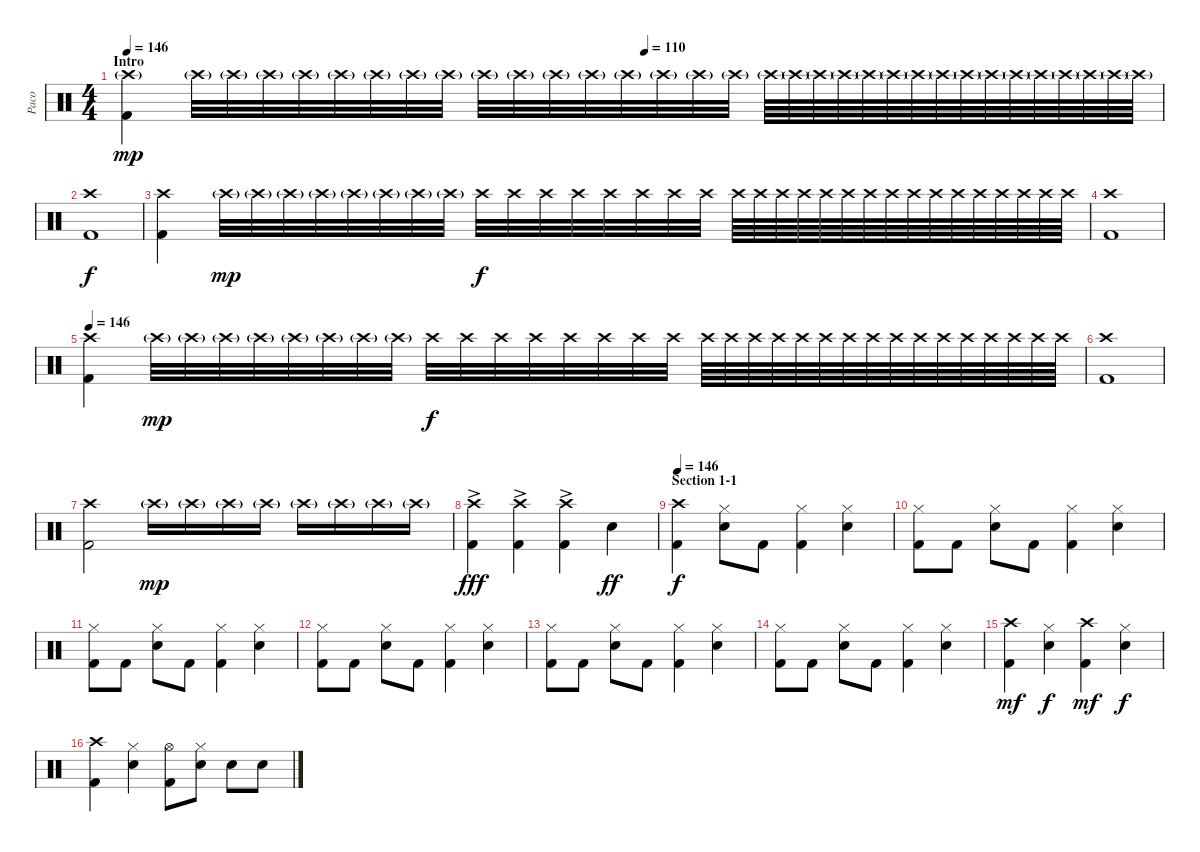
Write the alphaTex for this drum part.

\track ("Paco" "Paco") {instrument percussion}
\staff {score}
\articulation defaults
\ts (4 4)
\section ("" "Intro")
\tempo 146
\tempo 70
\tempo (110 0.5)
\tempo 146
\clef neutral
\ks c
("Crash high (hit)"{g} "Kick (hit) 2").4{dy mp} "Crash high (hit)"{g}.32 "Crash high (hit)"{g}.32 "Crash high (hit)"{g}.32 "Crash high (hit)"{g}.32 "Crash high (hit)"{g}.32 "Crash high (hit)"{g}.32 "Crash high (hit)"{g}.32 "Crash high (hit)"{g}.32 "Crash high (hit)"{g}.32 "Crash high (hit)"{g}.32 "Crash high (hit)"{g}.32 "Crash high (hit)"{g}.32 "Crash high (hit)"{g}.32 "Crash high (hit)"{g}.32 "Crash high (hit)"{g}.32 "Crash high (hit)"{g}.32 "Crash high (hit)"{g}.64 "Crash high (hit)"{g}.64 "Crash high (hit)"{g}.64 "Crash high (hit)"{g}.64 "Crash high (hit)"{g}.64 "Crash high (hit)"{g}.64 "Crash high (hit)"{g}.64 "Crash high (hit)"{g}.64 "Crash high (hit)"{g}.64 "Crash high (hit)"{g}.64 "Crash high (hit)"{g}.64 "Crash high (hit)"{g}.64 "Crash high (hit)"{g}.64 "Crash high (hit)"{g}.64 "Crash high (hit)"{g}.64 "Crash high (hit)"{g}.64 |
("Crash high (hit)" "Kick (hit) 2").1{dy f} |
("Crash high (hit)" "Kick (hit) 2").4 "Crash high (hit)"{g}.32{dy mp} "Crash high (hit)"{g}.32 "Crash high (hit)"{g}.32 "Crash high (hit)"{g}.32 "Crash high (hit)"{g}.32 "Crash high (hit)"{g}.32 "Crash high (hit)"{g}.32 "Crash high (hit)"{g}.32 "Crash high (hit)".32{dy f} "Crash high (hit)".32 "Crash high (hit)".32 "Crash high (hit)".32 "Crash high (hit)".32 "Crash high (hit)".32 "Crash high (hit)".32 "Crash high (hit)".32 "Crash high (hit)".64 "Crash high (hit)".64 "Crash high (hit)".64 "Crash high (hit)".64 "Crash high (hit)".64 "Crash high (hit)".64 "Crash high (hit)".64 "Crash high (hit)".64 "Crash high (hit)".64 "Crash high (hit)".64 "Crash high (hit)".64 "Crash high (hit)".64 "Crash high (hit)".64 "Crash high (hit)".64 "Crash high (hit)".64 "Crash high (hit)".64 |
("Crash high (hit)" "Kick (hit) 2").1 |
\tempo 146
("Crash high (hit)" "Kick (hit) 2").4 "Crash high (hit)"{g}.32{dy mp} "Crash high (hit)"{g}.32 "Crash high (hit)"{g}.32 "Crash high (hit)"{g}.32 "Crash high (hit)"{g}.32 "Crash high (hit)"{g}.32 "Crash high (hit)"{g}.32 "Crash high (hit)"{g}.32 "Crash high (hit)".32{dy f} "Crash high (hit)".32 "Crash high (hit)".32 "Crash high (hit)".32 "Crash high (hit)".32 "Crash high (hit)".32 "Crash high (hit)".32 "Crash high (hit)".32 "Crash high (hit)".64 "Crash high (hit)".64 "Crash high (hit)".64 "Crash high (hit)".64 "Crash high (hit)".64 "Crash high (hit)".64 "Crash high (hit)".64 "Crash high (hit)".64 "Crash high (hit)".64 "Crash high (hit)".64 "Crash high (hit)".64 "Crash high (hit)".64 "Crash high (hit)".64 "Crash high (hit)".64 "Crash high (hit)".64 "Crash high (hit)".64 |
("Crash high (hit)" "Kick (hit) 2").1 |
("Crash high (hit)" "Kick (hit) 2").2 "Crash high (hit)"{g}.16{dy mp} "Crash high (hit)"{g}.16 "Crash high (hit)"{g}.16 "Crash high (hit)"{g}.16 "Crash high (hit)"{g}.16 "Crash high (hit)"{g}.16 "Crash high (hit)"{g}.16 "Crash high (hit)"{g}.16 |
("Crash high (hit)"{ac} "Kick (hit) 2").4{dy fff} ("Crash high (hit)"{ac} "Kick (hit) 2").4 ("Crash high (hit)"{ac} "Kick (hit) 2").4 "Snare (hit) 2".4{dy ff} |
\section ("" "Section 1-1")
\tempo 146
("Crash high (hit)" "Kick (hit) 2").4{dy f} ("Hi-Hat (closed)" "Snare (hit) 2").8 "Kick (hit) 2".8 ("Hi-Hat (closed)" "Kick (hit) 2").4 ("Hi-Hat (closed)" "Snare (hit) 2").4 |
("Hi-Hat (closed)" "Kick (hit) 2").8 "Kick (hit) 2".8 ("Hi-Hat (closed)" "Snare (hit) 2").8 "Kick (hit) 2".8 ("Hi-Hat (closed)" "Kick (hit) 2").4 ("Hi-Hat (closed)" "Snare (hit) 2").4 |
("Hi-Hat (closed)" "Kick (hit) 2").8 "Kick (hit) 2".8 ("Hi-Hat (closed)" "Snare (hit) 2").8 "Kick (hit) 2".8 ("Hi-Hat (closed)" "Kick (hit) 2").4 ("Hi-Hat (closed)" "Snare (hit) 2").4 |
("Hi-Hat (closed)" "Kick (hit) 2").8 "Kick (hit) 2".8 ("Hi-Hat (closed)" "Snare (hit) 2").8 "Kick (hit) 2".8 ("Hi-Hat (closed)" "Kick (hit) 2").4 ("Hi-Hat (closed)" "Snare (hit) 2").4 |
("Hi-Hat (closed)" "Kick (hit) 2").8 "Kick (hit) 2".8 ("Hi-Hat (closed)" "Snare (hit) 2").8 "Kick (hit) 2".8 ("Hi-Hat (closed)" "Kick (hit) 2").4 ("Hi-Hat (closed)" "Snare (hit) 2").4 |
("Hi-Hat (closed)" "Kick (hit) 2").8 "Kick (hit) 2".8 ("Hi-Hat (closed)" "Snare (hit) 2").8 "Kick (hit) 2".8 ("Hi-Hat (closed)" "Kick (hit) 2").4 ("Hi-Hat (closed)" "Snare (hit) 2").4 |
("Crash high (hit)" "Kick (hit) 2").4{dy mf} ("Hi-Hat (closed)" "Snare (hit) 2").4{dy f} ("Crash high (hit)" "Kick (hit) 2").4{dy mf} ("Hi-Hat (closed)" "Snare (hit) 2").4{dy f} |
("Crash high (hit)" "Kick (hit) 2").4 ("Hi-Hat (closed)" "Snare (hit) 2").4 ("Hi-Hat (open)" "Kick (hit) 2").8 ("Hi-Hat (closed)" "Snare (hit) 2").8 "Snare (hit) 2".8 "Snare (hit) 2".8
